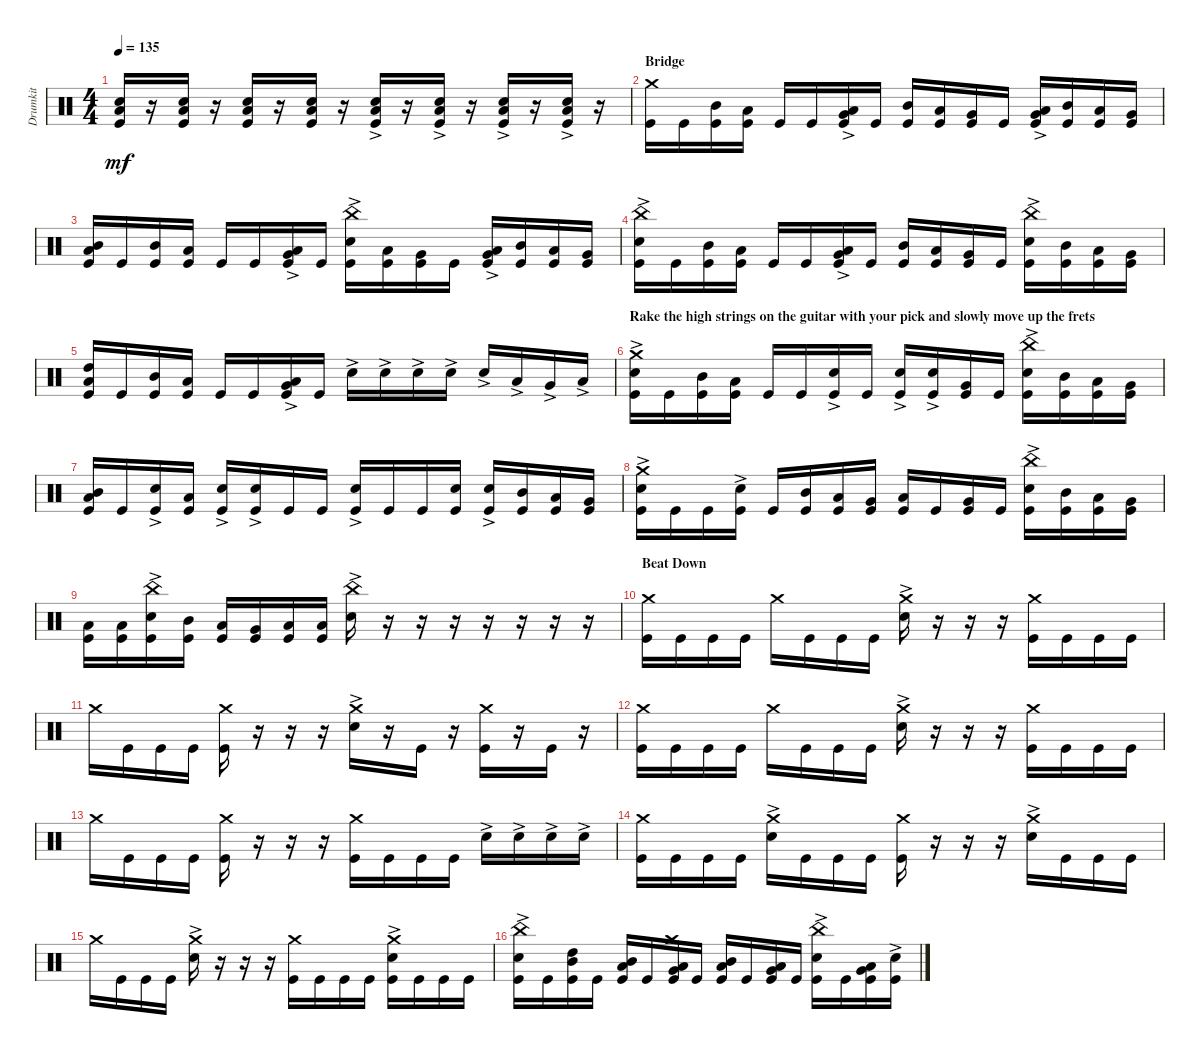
\track ("Drumkit" "Drumkit") {instrument percussion}
\staff {score}
\articulation defaults
\ts (4 4)
\tempo 135
\clef neutral
\ks c
("Kick (hit)" "Low Floor Tom (hit)" "Snare (hit) 2").16{dy mf} r.16 ("Kick (hit)" "Low Floor Tom (hit)" "Snare (hit) 2").16 r.16 ("Kick (hit)" "Low Floor Tom (hit)" "Snare (hit) 2").16 r.16 ("Kick (hit)" "Low Floor Tom (hit)" "Snare (hit) 2").16 r.16 ("Kick (hit)" "Low Floor Tom (hit)"{ac} "Snare (hit) 2"{ac}).16 r.16 ("Kick (hit)" "Low Floor Tom (hit)"{ac} "Snare (hit) 2"{ac}).16 r.16 ("Kick (hit)" "Low Floor Tom (hit)"{ac} "Snare (hit) 2"{ac}).16 r.16 ("Kick (hit)" "Low Floor Tom (hit)"{ac} "Snare (hit) 2"{ac}).16 r.16 |
\section ("" "Bridge")
("Crash medium (hit)" "Kick (hit)").16 "Kick (hit)".16 ("Kick (hit)" "Mid Tom (hit)").16 ("Kick (hit)" "Low Tom (hit)").16 "Kick (hit)".16 "Kick (hit)".16 ("Kick (hit)" "Low Tom (hit)"{ac} "Very Low Tom (hit)"{ac}).16 "Kick (hit)".16 ("Kick (hit)" "Mid Tom (hit)").16 ("Kick (hit)" "Low Tom (hit)").16 ("Kick (hit)" "Very Low Tom (hit)").16 "Kick (hit)".16 ("Kick (hit)" "Very Low Tom (hit)"{ac} "Low Floor Tom (hit)"{ac}).16 ("Kick (hit)" "Mid Tom (hit)").16 ("Kick (hit)" "Low Tom (hit)").16 ("Very Low Tom (hit)" "Kick (hit)").16 |
("Kick (hit)" "Mid Tom (hit)" "Low Tom (hit)").16 "Kick (hit)".16 ("Kick (hit)" "Mid Tom (hit)").16 ("Kick (hit)" "Low Tom (hit)").16 "Kick (hit)".16 "Kick (hit)".16 ("Kick (hit)" "Low Tom (hit)"{ac} "Very Low Tom (hit)"{ac}).16 "Kick (hit)".16 ("Kick (hit)" "China (hit)" "Snare (hit) 2"{ac}).16 ("Kick (hit)" "Low Tom (hit)").16 ("Kick (hit)" "Very Low Tom (hit)").16 "Kick (hit)".16 ("Kick (hit)" "Very Low Tom (hit)"{ac} "Low Floor Tom (hit)"{ac}).16 ("Kick (hit)" "Mid Tom (hit)").16 ("Kick (hit)" "Low Tom (hit)").16 ("Very Low Tom (hit)" "Kick (hit)").16 |
("Kick (hit)" "Snare (hit) 2"{ac} "China (hit)"{ac}).16 "Kick (hit)".16 ("Kick (hit)" "Mid Tom (hit)").16 ("Kick (hit)" "Low Tom (hit)").16 "Kick (hit)".16 "Kick (hit)".16 ("Kick (hit)" "Low Tom (hit)"{ac} "Very Low Tom (hit)"{ac}).16 "Kick (hit)".16 ("Kick (hit)" "Mid Tom (hit)").16 ("Kick (hit)" "Low Tom (hit)").16 ("Kick (hit)" "Very Low Tom (hit)").16 "Kick (hit)".16 ("Kick (hit)" "Snare (hit) 2"{ac} "China (hit)"{ac}).16 ("Kick (hit)" "Mid Tom (hit)").16 ("Kick (hit)" "Low Tom (hit)").16 ("Very Low Tom (hit)" "Kick (hit)").16 |
("Kick (hit)" "High Tom (hit)" "Low Tom (hit)").16 "Kick (hit)".16 ("Kick (hit)" "Mid Tom (hit)").16 ("Kick (hit)" "Low Tom (hit)").16 "Kick (hit)".16 "Kick (hit)".16 ("Kick (hit)" "Low Tom (hit)"{ac} "Very Low Tom (hit)"{ac}).16 "Kick (hit)".16 "Snare (hit) 2"{ac}.16 "Snare (hit) 2"{ac}.16 "Snare (hit) 2"{ac}.16 "Snare (hit) 2"{ac}.16 "Snare (hit) 2"{ac}.16 "Low Tom (hit)"{ac}.16 "Very Low Tom (hit)"{ac}.16 "Low Floor Tom (hit)"{ac}.16 |
\section ("" "Rake the high strings on the guitar with your pick and slowly move up the frets ")
("Crash medium (hit)" "Kick (hit)" "Snare (hit) 2"{ac}).16 "Kick (hit)".16 ("Kick (hit)" "Mid Tom (hit)").16 ("Kick (hit)" "Low Tom (hit)").16 "Kick (hit)".16 "Kick (hit)".16 ("Kick (hit)" "Snare (hit) 2"{ac}).16 "Kick (hit)".16 ("Kick (hit)" "Snare (hit) 2"{ac}).16 ("Kick (hit)" "Snare (hit) 2"{ac}).16 ("Kick (hit)" "Very Low Tom (hit)").16 "Kick (hit)".16 ("Kick (hit)" "Snare (hit) 2"{ac} "China (hit)").16 ("Kick (hit)" "Mid Tom (hit)").16 ("Kick (hit)" "Low Tom (hit)").16 ("Very Low Tom (hit)" "Kick (hit)").16 |
("Kick (hit)" "Mid Tom (hit)" "Low Tom (hit)").16 "Kick (hit)".16 ("Kick (hit)" "Snare (hit) 2"{ac}).16 ("Kick (hit)" "Low Tom (hit)").16 ("Kick (hit)" "Snare (hit) 2"{ac}).16 ("Kick (hit)" "Snare (hit) 2"{ac}).16 "Kick (hit)".16 "Kick (hit)".16 ("Kick (hit)" "Snare (hit) 2"{ac}).16 "Kick (hit)".16 "Kick (hit)".16 ("Kick (hit)" "Snare (hit) 2").16 ("Kick (hit)" "Snare (hit) 2"{ac}).16 ("Kick (hit)" "Mid Tom (hit)").16 ("Kick (hit)" "Low Tom (hit)").16 ("Very Low Tom (hit)" "Kick (hit)").16 |
("Crash medium (hit)" "Kick (hit)" "Snare (hit) 2"{ac}).16 "Kick (hit)".16 "Kick (hit)".16 ("Kick (hit)" "Snare (hit) 2"{ac}).16 "Kick (hit)".16 ("Kick (hit)" "Mid Tom (hit)").16 ("Kick (hit)" "Low Tom (hit)").16 ("Kick (hit)" "Very Low Tom (hit)").16 ("Kick (hit)" "Low Tom (hit)").16 "Kick (hit)".16 ("Kick (hit)" "Very Low Tom (hit)").16 "Kick (hit)".16 ("Kick (hit)" "China (hit)" "Snare (hit) 2"{ac}).16 ("Mid Tom (hit)" "Kick (hit)").16 ("Low Tom (hit)" "Kick (hit)").16 ("Very Low Tom (hit)" "Kick (hit)").16 |
("Low Floor Tom (hit)" "Kick (hit)").16 ("Low Floor Tom (hit)" "Kick (hit)").16 ("Snare (hit) 2"{ac} "Kick (hit)" "China (hit)").16 ("Mid Tom (hit)" "Kick (hit)").16 ("Low Tom (hit)" "Kick (hit)").16 ("Very Low Tom (hit)" "Kick (hit)").16 ("Low Floor Tom (hit)" "Kick (hit)").16 ("Low Floor Tom (hit)" "Kick (hit)").16 ("Snare (hit) 2"{ac} "China (hit)").16 r.16 r.16 r.16 r.16 r.16 r.16 r.16 |
\section ("" "Beat Down")
("Crash medium (hit)" "Kick (hit)").16 "Kick (hit)".16 "Kick (hit)".16 "Kick (hit)".16 "Crash medium (hit)".16 "Kick (hit)".16 "Kick (hit)".16 "Kick (hit)".16 ("Crash medium (hit)" "Snare (hit) 2"{ac}).16 r.16 r.16 r.16 ("Crash medium (hit)" "Kick (hit)").16 "Kick (hit)".16 "Kick (hit)".16 "Kick (hit)".16 |
"Crash medium (hit)".16 "Kick (hit)".16 "Kick (hit)".16 "Kick (hit)".16 ("Crash medium (hit)" "Kick (hit)").16 r.16 r.16 r.16 ("Crash medium (hit)" "Snare (hit) 2"{ac}).16 r.16 "Kick (hit)".16 r.16 ("Crash medium (hit)" "Kick (hit)").16 r.16 "Kick (hit)".16 r.16 |
("Crash medium (hit)" "Kick (hit)").16 "Kick (hit)".16 "Kick (hit)".16 "Kick (hit)".16 "Crash medium (hit)".16 "Kick (hit)".16 "Kick (hit)".16 "Kick (hit)".16 ("Crash medium (hit)" "Snare (hit) 2"{ac}).16 r.16 r.16 r.16 ("Crash medium (hit)" "Kick (hit)").16 "Kick (hit)".16 "Kick (hit)".16 "Kick (hit)".16 |
"Crash medium (hit)".16 "Kick (hit)".16 "Kick (hit)".16 "Kick (hit)".16 ("Crash medium (hit)" "Kick (hit)").16 r.16 r.16 r.16 ("Kick (hit)" "Crash medium (hit)").16 "Kick (hit)".16 "Kick (hit)".16 "Kick (hit)".16 "Snare (hit) 2"{ac}.16 "Snare (hit) 2"{ac}.16 "Snare (hit) 2"{ac}.16 "Snare (hit) 2"{ac}.16 |
("Crash medium (hit)" "Kick (hit)").16 "Kick (hit)".16 "Kick (hit)".16 "Kick (hit)".16 ("Crash medium (hit)" "Snare (hit) 2"{ac}).16 "Kick (hit)".16 "Kick (hit)".16 "Kick (hit)".16 ("Crash medium (hit)" "Kick (hit)").16 r.16 r.16 r.16 ("Crash medium (hit)" "Snare (hit) 2"{ac}).16 "Kick (hit)".16 "Kick (hit)".16 "Kick (hit)".16 |
"Crash medium (hit)".16 "Kick (hit)".16 "Kick (hit)".16 "Kick (hit)".16 ("Crash medium (hit)" "Snare (hit) 2"{ac}).16 r.16 r.16 r.16 ("Crash medium (hit)" "Kick (hit)").16 "Kick (hit)".16 "Kick (hit)".16 "Kick (hit)".16 ("Crash medium (hit)" "Snare (hit) 2"{ac} "Kick (hit)").16 "Kick (hit)".16 "Kick (hit)".16 "Kick (hit)".16 |
("Kick (hit)" "Snare (hit) 2"{ac} "China (hit)").16 "Kick (hit)".16 ("Kick (hit)" "Mid Tom (hit)" "High Tom (hit)").16 "Kick (hit)".16 ("Kick (hit)" "Low Tom (hit)" "Mid Tom (hit)").16 "Kick (hit)".16 ("Kick (hit)" "Low Tom (hit)" "Very Low Tom (hit)" "Crash medium (hit)").16 "Kick (hit)".16 ("Kick (hit)" "Mid Tom (hit)" "Low Tom (hit)").16 "Kick (hit)".16 ("Kick (hit)" "Very Low Tom (hit)" "Low Floor Tom (hit)").16 "Kick (hit)".16 ("Kick (hit)" "Snare (hit) 2"{ac} "China (hit)").16 "Kick (hit)".16 ("Kick (hit)" "Low Tom (hit)" "Very Low Tom (hit)").16 ("Kick (hit)" "Snare (hit) 2"{ac}).16
